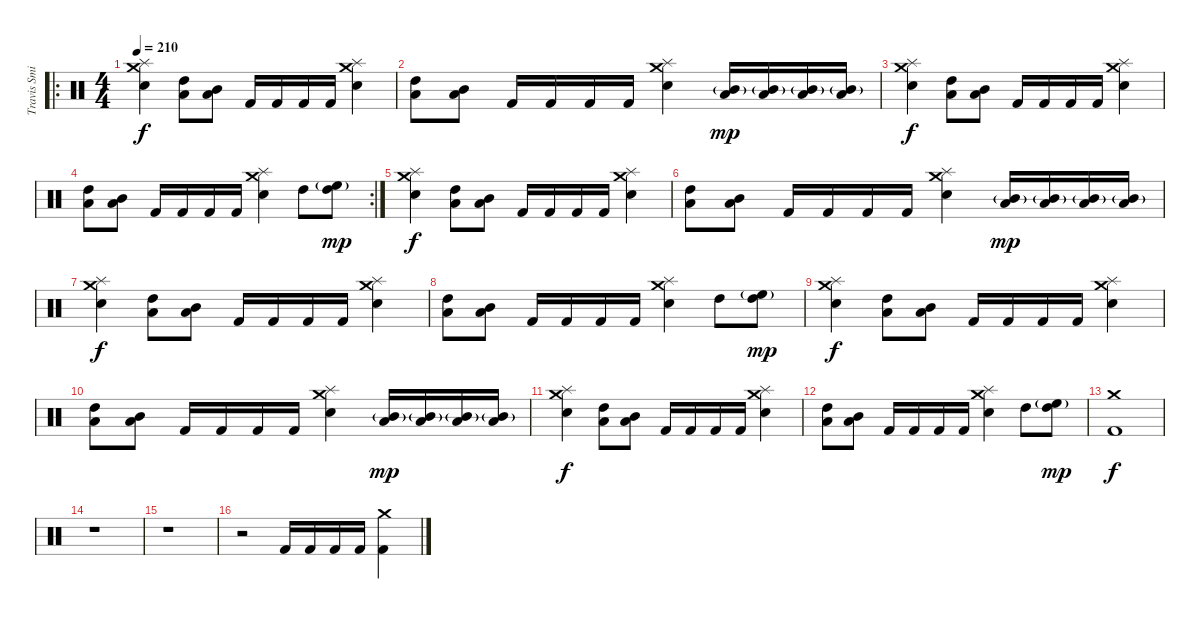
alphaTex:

\track ("Travis Smith" "Travis Smi") {instrument percussion}
\staff {score}
\articulation defaults
\ro
\ts (4 4)
\tempo 210
\clef neutral
\ks c
("Crash medium (hit)" "Splash (hit)" "Electric Snare (hit)").4{dy f} ("High Tom (hit)" "Low Tom (hit)").8 ("Mid Tom (hit)" "Low Tom (hit)").8 "Kick (hit) 2".16 "Kick (hit) 2".16 "Kick (hit) 2".16 "Kick (hit) 2".16 ("Crash medium (hit)" "Splash (hit)" "Electric Snare (hit)").4 |
("High Tom (hit)" "Low Tom (hit)").8 ("Mid Tom (hit)" "Low Tom (hit)").8 "Kick (hit) 2".16 "Kick (hit) 2".16 "Kick (hit) 2".16 "Kick (hit) 2".16 ("Crash medium (hit)" "Splash (hit)" "Electric Snare (hit)").4 ("Mid Tom (hit)"{g} "Low Tom (hit)").16{dy mp} ("Mid Tom (hit)"{g} "Low Tom (hit)").16 ("Mid Tom (hit)"{g} "Low Tom (hit)").16 ("Mid Tom (hit)"{g} "Low Tom (hit)").16 |
("Crash medium (hit)" "Splash (hit)" "Electric Snare (hit)").4{dy f} ("High Tom (hit)" "Low Tom (hit)").8 ("Mid Tom (hit)" "Low Tom (hit)").8 "Kick (hit) 2".16 "Kick (hit) 2".16 "Kick (hit) 2".16 "Kick (hit) 2".16 ("Crash medium (hit)" "Splash (hit)" "Electric Snare (hit)").4 |
\rc 2
("High Tom (hit)" "Low Tom (hit)").8 ("Mid Tom (hit)" "Low Tom (hit)").8 "Kick (hit) 2".16 "Kick (hit) 2".16 "Kick (hit) 2".16 "Kick (hit) 2".16 ("Crash medium (hit)" "Splash (hit)" "Electric Snare (hit)").4 "High Tom (hit)".8 ("High Floor Tom (hit)"{g} "High Tom (hit)").8{dy mp} |
("Crash medium (hit)" "Splash (hit)" "Electric Snare (hit)").4{dy f} ("High Tom (hit)" "Low Tom (hit)").8 ("Mid Tom (hit)" "Low Tom (hit)").8 "Kick (hit) 2".16 "Kick (hit) 2".16 "Kick (hit) 2".16 "Kick (hit) 2".16 ("Crash medium (hit)" "Splash (hit)" "Electric Snare (hit)").4 |
("High Tom (hit)" "Low Tom (hit)").8 ("Mid Tom (hit)" "Low Tom (hit)").8 "Kick (hit) 2".16 "Kick (hit) 2".16 "Kick (hit) 2".16 "Kick (hit) 2".16 ("Crash medium (hit)" "Splash (hit)" "Electric Snare (hit)").4 ("Mid Tom (hit)"{g} "Low Tom (hit)").16{dy mp} ("Mid Tom (hit)"{g} "Low Tom (hit)").16 ("Mid Tom (hit)"{g} "Low Tom (hit)").16 ("Mid Tom (hit)"{g} "Low Tom (hit)").16 |
("Crash medium (hit)" "Splash (hit)" "Electric Snare (hit)").4{dy f} ("High Tom (hit)" "Low Tom (hit)").8 ("Mid Tom (hit)" "Low Tom (hit)").8 "Kick (hit) 2".16 "Kick (hit) 2".16 "Kick (hit) 2".16 "Kick (hit) 2".16 ("Crash medium (hit)" "Splash (hit)" "Electric Snare (hit)").4 |
("High Tom (hit)" "Low Tom (hit)").8 ("Mid Tom (hit)" "Low Tom (hit)").8 "Kick (hit) 2".16 "Kick (hit) 2".16 "Kick (hit) 2".16 "Kick (hit) 2".16 ("Crash medium (hit)" "Splash (hit)" "Electric Snare (hit)").4 "High Tom (hit)".8 ("High Floor Tom (hit)"{g} "High Tom (hit)").8{dy mp} |
("Crash medium (hit)" "Splash (hit)" "Electric Snare (hit)").4{dy f} ("High Tom (hit)" "Low Tom (hit)").8 ("Mid Tom (hit)" "Low Tom (hit)").8 "Kick (hit) 2".16 "Kick (hit) 2".16 "Kick (hit) 2".16 "Kick (hit) 2".16 ("Crash medium (hit)" "Splash (hit)" "Electric Snare (hit)").4 |
("High Tom (hit)" "Low Tom (hit)").8 ("Mid Tom (hit)" "Low Tom (hit)").8 "Kick (hit) 2".16 "Kick (hit) 2".16 "Kick (hit) 2".16 "Kick (hit) 2".16 ("Crash medium (hit)" "Splash (hit)" "Electric Snare (hit)").4 ("Mid Tom (hit)"{g} "Low Tom (hit)").16{dy mp} ("Mid Tom (hit)"{g} "Low Tom (hit)").16 ("Mid Tom (hit)"{g} "Low Tom (hit)").16 ("Mid Tom (hit)"{g} "Low Tom (hit)").16 |
("Crash medium (hit)" "Splash (hit)" "Electric Snare (hit)").4{dy f} ("High Tom (hit)" "Low Tom (hit)").8 ("Mid Tom (hit)" "Low Tom (hit)").8 "Kick (hit) 2".16 "Kick (hit) 2".16 "Kick (hit) 2".16 "Kick (hit) 2".16 ("Crash medium (hit)" "Splash (hit)" "Electric Snare (hit)").4 |
("High Tom (hit)" "Low Tom (hit)").8 ("Mid Tom (hit)" "Low Tom (hit)").8 "Kick (hit) 2".16 "Kick (hit) 2".16 "Kick (hit) 2".16 "Kick (hit) 2".16 ("Crash medium (hit)" "Splash (hit)" "Electric Snare (hit)").4 "High Tom (hit)".8 ("High Floor Tom (hit)"{g} "High Tom (hit)").8{dy mp} |
("Crash medium (hit)" "Kick (hit) 2").1{dy f} |
r.1 |
r.1 |
r.2 "Kick (hit) 2".16 "Kick (hit) 2".16 "Kick (hit) 2".16 "Kick (hit) 2".16 ("Crash medium (hit)" "Kick (hit) 2").4
